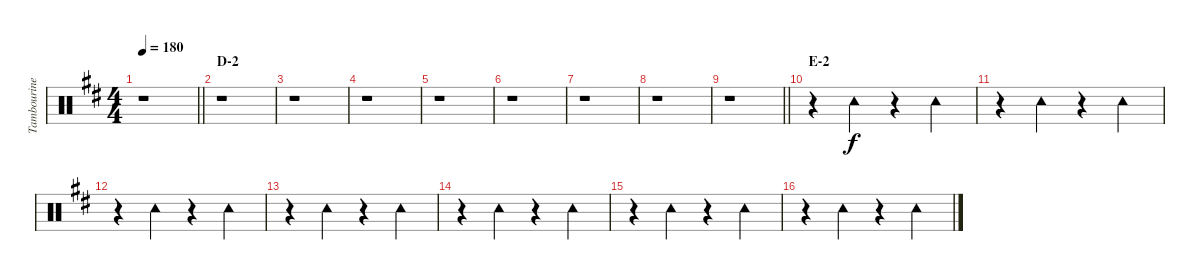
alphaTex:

\track ("Tambourine" "Tambourine") {instrument percussion}
\staff {score}
\articulation defaults
\ts (4 4)
\tempo 180
\clef neutral
\barLineRight lightlight
\ks d
r.1{dy f} |
\section ("" "D-2")
r.1 |
r.1 |
r.1 |
r.1 |
r.1 |
r.1 |
r.1 |
\barLineRight lightlight
r.1 |
\section ("" "E-2")
r.4 "Tambourine (hit)".4 r.4 "Tambourine (hit)".4 |
r.4 "Tambourine (hit)".4 r.4 "Tambourine (hit)".4 |
r.4 "Tambourine (hit)".4 r.4 "Tambourine (hit)".4 |
r.4 "Tambourine (hit)".4 r.4 "Tambourine (hit)".4 |
r.4 "Tambourine (hit)".4 r.4 "Tambourine (hit)".4 |
r.4 "Tambourine (hit)".4 r.4 "Tambourine (hit)".4 |
r.4 "Tambourine (hit)".4 r.4 "Tambourine (hit)".4
